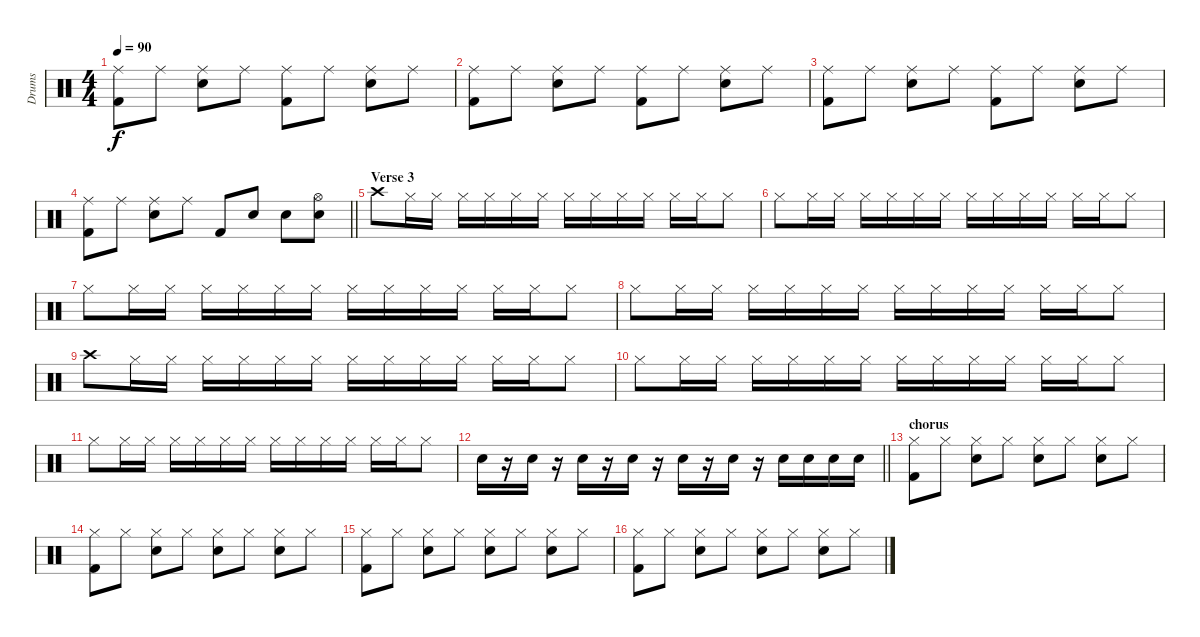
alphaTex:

\track ("Drums" "Drums") {instrument percussion}
\staff {score}
\articulation defaults
\ts (4 4)
\tempo 90
\clef neutral
\ks c
("Ride (middle)" "Kick (hit) 2").8{dy f} "Ride (middle)".8 ("Ride (middle)" "Snare (hit) 2").8 "Ride (middle)".8 ("Ride (middle)" "Kick (hit) 2").8 "Ride (middle)".8 ("Ride (middle)" "Snare (hit) 2").8 "Ride (middle)".8 |
("Ride (middle)" "Kick (hit) 2").8 "Ride (middle)".8 ("Ride (middle)" "Snare (hit) 2").8 "Ride (middle)".8 ("Ride (middle)" "Kick (hit) 2").8 "Ride (middle)".8 ("Ride (middle)" "Snare (hit) 2").8 "Ride (middle)".8 |
("Ride (middle)" "Kick (hit) 2").8 "Ride (middle)".8 ("Ride (middle)" "Snare (hit) 2").8 "Ride (middle)".8 ("Ride (middle)" "Kick (hit) 2").8 "Ride (middle)".8 ("Ride (middle)" "Snare (hit) 2").8 "Ride (middle)".8 |
\barLineRight lightlight
("Ride (middle)" "Kick (hit) 2").8 "Ride (middle)".8 ("Ride (middle)" "Snare (hit) 2").8 "Ride (middle)".8 "Kick (hit) 2".8 "Snare (hit) 2".8 "Snare (hit) 2".8 ("Hi-Hat (open)" "Snare (hit) 2").8 |
\section ("" "Verse 3")
"Crash high (hit)".8 "Hi-Hat (closed)".16 "Hi-Hat (closed)".16 "Hi-Hat (closed)".16 "Hi-Hat (closed)".16 "Hi-Hat (closed)".16 "Hi-Hat (closed)".16 "Hi-Hat (closed)".16 "Hi-Hat (closed)".16 "Hi-Hat (closed)".16 "Hi-Hat (closed)".16 "Hi-Hat (closed)".16 "Hi-Hat (closed)".16 "Hi-Hat (closed)".8 |
"Hi-Hat (closed)".8 "Hi-Hat (closed)".16 "Hi-Hat (closed)".16 "Hi-Hat (closed)".16 "Hi-Hat (closed)".16 "Hi-Hat (closed)".16 "Hi-Hat (closed)".16 "Hi-Hat (closed)".16 "Hi-Hat (closed)".16 "Hi-Hat (closed)".16 "Hi-Hat (closed)".16 "Hi-Hat (closed)".16 "Hi-Hat (closed)".16 "Hi-Hat (closed)".8 |
"Hi-Hat (closed)".8 "Hi-Hat (closed)".16 "Hi-Hat (closed)".16 "Hi-Hat (closed)".16 "Hi-Hat (closed)".16 "Hi-Hat (closed)".16 "Hi-Hat (closed)".16 "Hi-Hat (closed)".16 "Hi-Hat (closed)".16 "Hi-Hat (closed)".16 "Hi-Hat (closed)".16 "Hi-Hat (closed)".16 "Hi-Hat (closed)".16 "Hi-Hat (closed)".8 |
"Hi-Hat (closed)".8 "Hi-Hat (closed)".16 "Hi-Hat (closed)".16 "Hi-Hat (closed)".16 "Hi-Hat (closed)".16 "Hi-Hat (closed)".16 "Hi-Hat (closed)".16 "Hi-Hat (closed)".16 "Hi-Hat (closed)".16 "Hi-Hat (closed)".16 "Hi-Hat (closed)".16 "Hi-Hat (closed)".16 "Hi-Hat (closed)".16 "Hi-Hat (closed)".8 |
"Crash high (hit)".8 "Hi-Hat (closed)".16 "Hi-Hat (closed)".16 "Hi-Hat (closed)".16 "Hi-Hat (closed)".16 "Hi-Hat (closed)".16 "Hi-Hat (closed)".16 "Hi-Hat (closed)".16 "Hi-Hat (closed)".16 "Hi-Hat (closed)".16 "Hi-Hat (closed)".16 "Hi-Hat (closed)".16 "Hi-Hat (closed)".16 "Hi-Hat (closed)".8 |
"Hi-Hat (closed)".8 "Hi-Hat (closed)".16 "Hi-Hat (closed)".16 "Hi-Hat (closed)".16 "Hi-Hat (closed)".16 "Hi-Hat (closed)".16 "Hi-Hat (closed)".16 "Hi-Hat (closed)".16 "Hi-Hat (closed)".16 "Hi-Hat (closed)".16 "Hi-Hat (closed)".16 "Hi-Hat (closed)".16 "Hi-Hat (closed)".16 "Hi-Hat (closed)".8 |
"Hi-Hat (closed)".8 "Hi-Hat (closed)".16 "Hi-Hat (closed)".16 "Hi-Hat (closed)".16 "Hi-Hat (closed)".16 "Hi-Hat (closed)".16 "Hi-Hat (closed)".16 "Hi-Hat (closed)".16 "Hi-Hat (closed)".16 "Hi-Hat (closed)".16 "Hi-Hat (closed)".16 "Hi-Hat (closed)".16 "Hi-Hat (closed)".16 "Hi-Hat (closed)".8 |
\barLineRight lightlight "Snare (hit) 2".16
r.16 "Snare (hit) 2".16 r.16 "Snare (hit) 2".16 r.16 "Snare (hit) 2".16 r.16 "Snare (hit) 2".16 r.16 "Snare (hit) 2".16 r.16 "Snare (hit) 2".16 "Snare (hit) 2".16 "Snare (hit) 2".16 "Snare (hit) 2".16 |
\section ("" "chorus")
("Hi-Hat (closed)" "Kick (hit) 2").8 "Hi-Hat (closed)".8 ("Hi-Hat (closed)" "Snare (hit) 2").8 "Hi-Hat (closed)".8 ("Hi-Hat (closed)" "Snare (hit) 2").8 "Hi-Hat (closed)".8 ("Hi-Hat (closed)" "Snare (hit) 2").8 "Hi-Hat (closed)".8 |
("Hi-Hat (closed)" "Kick (hit) 2").8 "Hi-Hat (closed)".8 ("Hi-Hat (closed)" "Snare (hit) 2").8 "Hi-Hat (closed)".8 ("Hi-Hat (closed)" "Snare (hit) 2").8 "Hi-Hat (closed)".8 ("Hi-Hat (closed)" "Snare (hit) 2").8 "Hi-Hat (closed)".8 |
("Hi-Hat (closed)" "Kick (hit) 2").8 "Hi-Hat (closed)".8 ("Hi-Hat (closed)" "Snare (hit) 2").8 "Hi-Hat (closed)".8 ("Hi-Hat (closed)" "Snare (hit) 2").8 "Hi-Hat (closed)".8 ("Hi-Hat (closed)" "Snare (hit) 2").8 "Hi-Hat (closed)".8 |
("Hi-Hat (closed)" "Kick (hit) 2").8 "Hi-Hat (closed)".8 ("Hi-Hat (closed)" "Snare (hit) 2").8 "Hi-Hat (closed)".8 ("Hi-Hat (closed)" "Snare (hit) 2").8 "Hi-Hat (closed)".8 ("Hi-Hat (closed)" "Snare (hit) 2").8 "Hi-Hat (closed)".8
